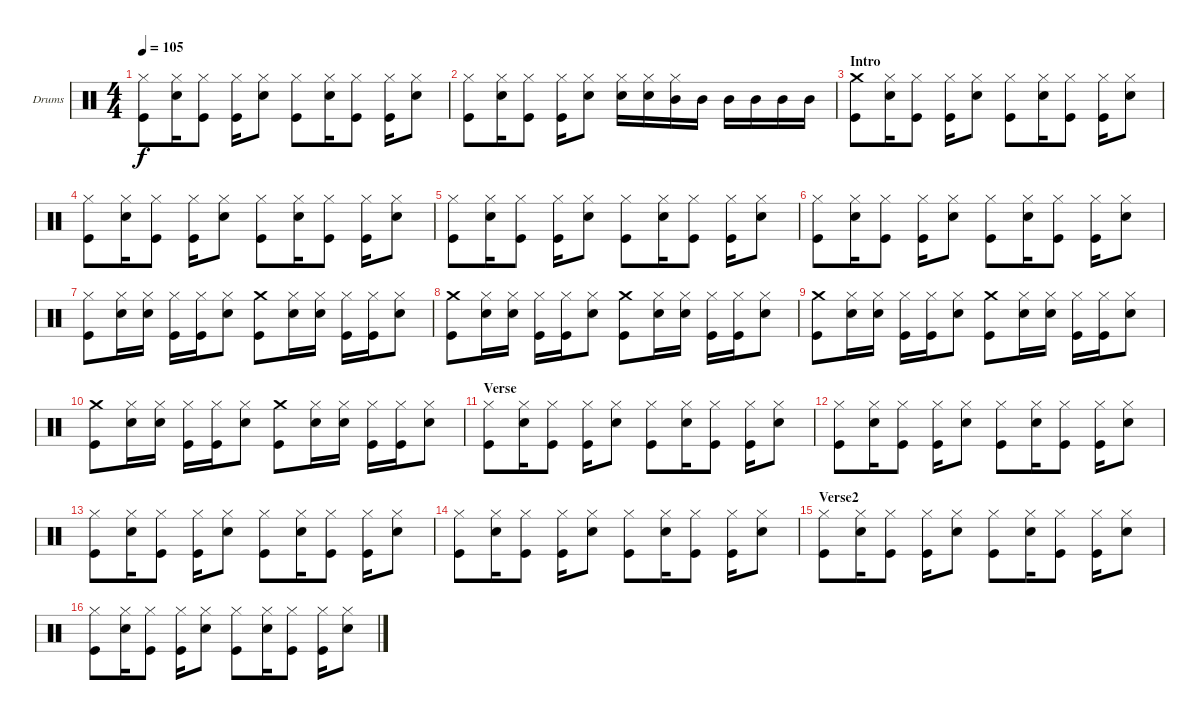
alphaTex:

\defaultSystemsLayout 4
\bracketExtendMode groupsimilarinstruments
\firstSystemTrackNameOrientation horizontal
\otherSystemsTrackNameOrientation horizontal
\track ("Drumkit" "Drums") {instrument percussion}
\staff {score}
\articulation defaults
\ts (4 4)
\tempo 105
\clef neutral
\scale
0.474178
\ks c
("Hi-Hat (closed)" "Kick (hit)").8{dy f} ("Hi-Hat (closed)" "Snare (hit) 2").16 ("Hi-Hat (closed)" "Kick (hit)").8 ("Hi-Hat (closed)" "Kick (hit)").16 ("Hi-Hat (closed)" "Snare (hit) 2").8 ("Hi-Hat (closed)" "Kick (hit)").8 ("Hi-Hat (closed)" "Snare (hit) 2").16 ("Hi-Hat (closed)" "Kick (hit)").8 ("Hi-Hat (closed)" "Kick (hit)").16 ("Hi-Hat (closed)" "Snare (hit) 2").8 |
\scale
0.262911 ("Hi-Hat (closed)" "Kick (hit)").8 ("Hi-Hat (closed)" "Snare (hit) 2").16 ("Hi-Hat (closed)" "Kick (hit)").8 ("Hi-Hat (closed)" "Kick (hit)").16 ("Hi-Hat (closed)" "Snare (hit) 2").8 ("Hi-Hat (closed)" "Snare (hit) 2").16 ("Hi-Hat (closed)" "Snare (hit) 2").16 ("Hi-Hat (closed)" "Mid Tom (hit)").16 "Mid Tom (hit)".16 "Mid Tom (hit)".16 "Mid Tom (hit)".16 "Mid Tom (hit)".16 "Mid Tom (hit)".16 |
\section ("" "Intro")
\scale
0.262911 ("Crash medium (hit)" "Kick (hit)").8 ("Hi-Hat (closed)" "Snare (hit) 2").16 ("Hi-Hat (closed)" "Kick (hit)").8 ("Hi-Hat (closed)" "Kick (hit)").16 ("Hi-Hat (closed)" "Snare (hit) 2").8 ("Hi-Hat (closed)" "Kick (hit)").8 ("Hi-Hat (closed)" "Snare (hit) 2").16 ("Hi-Hat (closed)" "Kick (hit)").8 ("Hi-Hat (closed)" "Kick (hit)").16 ("Hi-Hat (closed)" "Snare (hit) 2").8 |
\scale
0.333333 ("Hi-Hat (closed)" "Kick (hit)").8 ("Hi-Hat (closed)" "Snare (hit) 2").16 ("Hi-Hat (closed)" "Kick (hit)").8 ("Hi-Hat (closed)" "Kick (hit)").16 ("Hi-Hat (closed)" "Snare (hit) 2").8 ("Hi-Hat (closed)" "Kick (hit)").8 ("Hi-Hat (closed)" "Snare (hit) 2").16 ("Hi-Hat (closed)" "Kick (hit)").8 ("Hi-Hat (closed)" "Kick (hit)").16 ("Hi-Hat (closed)" "Snare (hit) 2").8 |
\scale
0.333333 ("Hi-Hat (closed)" "Kick (hit)").8 ("Hi-Hat (closed)" "Snare (hit) 2").16 ("Hi-Hat (closed)" "Kick (hit)").8 ("Hi-Hat (closed)" "Kick (hit)").16 ("Hi-Hat (closed)" "Snare (hit) 2").8 ("Hi-Hat (closed)" "Kick (hit)").8 ("Hi-Hat (closed)" "Snare (hit) 2").16 ("Hi-Hat (closed)" "Kick (hit)").8 ("Hi-Hat (closed)" "Kick (hit)").16 ("Hi-Hat (closed)" "Snare (hit) 2").8 |
("Hi-Hat (closed)" "Kick (hit)").8 ("Hi-Hat (closed)" "Snare (hit) 2").16 ("Hi-Hat (closed)" "Kick (hit)").8 ("Hi-Hat (closed)" "Kick (hit)").16 ("Hi-Hat (closed)" "Snare (hit) 2").8 ("Hi-Hat (closed)" "Kick (hit)").8 ("Hi-Hat (closed)" "Snare (hit) 2").16 ("Hi-Hat (closed)" "Kick (hit)").8 ("Hi-Hat (closed)" "Kick (hit)").16 ("Hi-Hat (closed)" "Snare (hit) 2").8 |
("Hi-Hat (closed)" "Kick (hit)").8 ("Hi-Hat (closed)" "Snare (hit) 2").16 ("Hi-Hat (closed)" "Snare (hit) 2").16 ("Hi-Hat (closed)" "Kick (hit)").16 ("Hi-Hat (closed)" "Kick (hit)").16 ("Hi-Hat (closed)" "Snare (hit) 2").8 ("Crash medium (hit)" "Kick (hit)").8 ("Hi-Hat (closed)" "Snare (hit) 2").16 ("Hi-Hat (closed)" "Snare (hit) 2").16 ("Hi-Hat (closed)" "Kick (hit)").16 ("Hi-Hat (closed)" "Kick (hit)").16 ("Hi-Hat (closed)" "Snare (hit) 2").8 |
("Crash medium (hit)" "Kick (hit)").8 ("Hi-Hat (closed)" "Snare (hit) 2").16 ("Hi-Hat (closed)" "Snare (hit) 2").16 ("Hi-Hat (closed)" "Kick (hit)").16 ("Hi-Hat (closed)" "Kick (hit)").16 ("Hi-Hat (closed)" "Snare (hit) 2").8 ("Crash medium (hit)" "Kick (hit)").8 ("Hi-Hat (closed)" "Snare (hit) 2").16 ("Hi-Hat (closed)" "Snare (hit) 2").16 ("Hi-Hat (closed)" "Kick (hit)").16 ("Hi-Hat (closed)" "Kick (hit)").16 ("Hi-Hat (closed)" "Snare (hit) 2").8 |
("Crash medium (hit)" "Kick (hit)").8 ("Hi-Hat (closed)" "Snare (hit) 2").16 ("Hi-Hat (closed)" "Snare (hit) 2").16 ("Hi-Hat (closed)" "Kick (hit)").16 ("Hi-Hat (closed)" "Kick (hit)").16 ("Hi-Hat (closed)" "Snare (hit) 2").8 ("Crash medium (hit)" "Kick (hit)").8 ("Hi-Hat (closed)" "Snare (hit) 2").16 ("Hi-Hat (closed)" "Snare (hit) 2").16 ("Hi-Hat (closed)" "Kick (hit)").16 ("Hi-Hat (closed)" "Kick (hit)").16 ("Hi-Hat (closed)" "Snare (hit) 2").8 |
\scale
0.333333 ("Crash medium (hit)" "Kick (hit)").8 ("Hi-Hat (closed)" "Snare (hit) 2").16 ("Hi-Hat (closed)" "Snare (hit) 2").16 ("Hi-Hat (closed)" "Kick (hit)").16 ("Hi-Hat (closed)" "Kick (hit)").16 ("Hi-Hat (closed)" "Snare (hit) 2").8 ("Crash medium (hit)" "Kick (hit)").8 ("Hi-Hat (closed)" "Snare (hit) 2").16 ("Hi-Hat (closed)" "Snare (hit) 2").16 ("Hi-Hat (closed)" "Kick (hit)").16 ("Hi-Hat (closed)" "Kick (hit)").16 ("Hi-Hat (closed)" "Snare (hit) 2").8 |
\section ("" "Verse")
("Hi-Hat (closed)" "Kick (hit)").8 ("Hi-Hat (closed)" "Snare (hit) 2").16 ("Hi-Hat (closed)" "Kick (hit)").8 ("Hi-Hat (closed)" "Kick (hit)").16 ("Hi-Hat (closed)" "Snare (hit) 2").8 ("Hi-Hat (closed)" "Kick (hit)").8 ("Hi-Hat (closed)" "Snare (hit) 2").16 ("Hi-Hat (closed)" "Kick (hit)").8 ("Hi-Hat (closed)" "Kick (hit)").16 ("Hi-Hat (closed)" "Snare (hit) 2").8 |
("Hi-Hat (closed)" "Kick (hit)").8 ("Hi-Hat (closed)" "Snare (hit) 2").16 ("Hi-Hat (closed)" "Kick (hit)").8 ("Hi-Hat (closed)" "Kick (hit)").16 ("Hi-Hat (closed)" "Snare (hit) 2").8 ("Hi-Hat (closed)" "Kick (hit)").8 ("Hi-Hat (closed)" "Snare (hit) 2").16 ("Hi-Hat (closed)" "Kick (hit)").8 ("Hi-Hat (closed)" "Kick (hit)").16 ("Hi-Hat (closed)" "Snare (hit) 2").8 |
("Hi-Hat (closed)" "Kick (hit)").8 ("Hi-Hat (closed)" "Snare (hit) 2").16 ("Hi-Hat (closed)" "Kick (hit)").8 ("Hi-Hat (closed)" "Kick (hit)").16 ("Hi-Hat (closed)" "Snare (hit) 2").8 ("Hi-Hat (closed)" "Kick (hit)").8 ("Hi-Hat (closed)" "Snare (hit) 2").16 ("Hi-Hat (closed)" "Kick (hit)").8 ("Hi-Hat (closed)" "Kick (hit)").16 ("Hi-Hat (closed)" "Snare (hit) 2").8 |
("Hi-Hat (closed)" "Kick (hit)").8 ("Hi-Hat (closed)" "Snare (hit) 2").16 ("Hi-Hat (closed)" "Kick (hit)").8 ("Hi-Hat (closed)" "Kick (hit)").16 ("Hi-Hat (closed)" "Snare (hit) 2").8 ("Hi-Hat (closed)" "Kick (hit)").8 ("Hi-Hat (closed)" "Snare (hit) 2").16 ("Hi-Hat (closed)" "Kick (hit)").8 ("Hi-Hat (closed)" "Kick (hit)").16 ("Hi-Hat (closed)" "Snare (hit) 2").8 |
\section ("" "Verse2")
("Hi-Hat (closed)" "Kick (hit)").8 ("Hi-Hat (closed)" "Snare (hit) 2").16 ("Hi-Hat (closed)" "Kick (hit)").8 ("Hi-Hat (closed)" "Kick (hit)").16 ("Hi-Hat (closed)" "Snare (hit) 2").8 ("Hi-Hat (closed)" "Kick (hit)").8 ("Hi-Hat (closed)" "Snare (hit) 2").16 ("Hi-Hat (closed)" "Kick (hit)").8 ("Hi-Hat (closed)" "Kick (hit)").16 ("Hi-Hat (closed)" "Snare (hit) 2").8 |
("Hi-Hat (closed)" "Kick (hit)").8 ("Hi-Hat (closed)" "Snare (hit) 2").16 ("Hi-Hat (closed)" "Kick (hit)").8 ("Hi-Hat (closed)" "Kick (hit)").16 ("Hi-Hat (closed)" "Snare (hit) 2").8 ("Hi-Hat (closed)" "Kick (hit)").8 ("Hi-Hat (closed)" "Snare (hit) 2").16 ("Hi-Hat (closed)" "Kick (hit)").8 ("Hi-Hat (closed)" "Kick (hit)").16 ("Hi-Hat (closed)" "Snare (hit) 2").8
